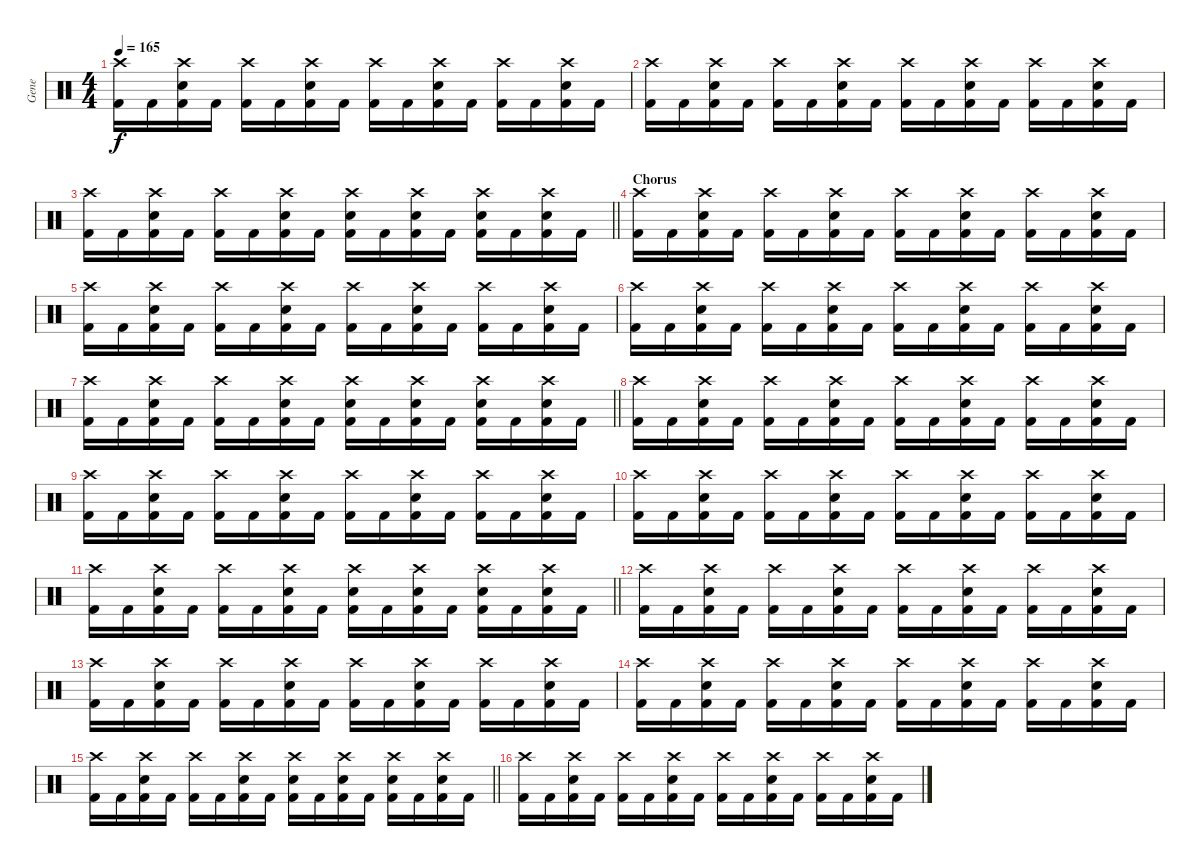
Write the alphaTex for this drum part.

\track ("Gene" "Gene") {instrument percussion}
\staff {score}
\articulation defaults
\ts (4 4)
\tempo 165
\clef neutral
\ks c
("Crash high (hit)" "Kick (hit) 2").16{dy f} "Kick (hit) 2".16 ("Crash high (hit)" "Electric Snare (hit)" "Kick (hit) 2").16 "Kick (hit) 2".16 ("Crash high (hit)" "Kick (hit) 2").16 "Kick (hit) 2".16 ("Crash high (hit)" "Electric Snare (hit)" "Kick (hit) 2").16 "Kick (hit) 2".16 ("Crash high (hit)" "Kick (hit) 2").16 "Kick (hit) 2".16 ("Crash high (hit)" "Electric Snare (hit)" "Kick (hit) 2").16 "Kick (hit) 2".16 ("Crash high (hit)" "Kick (hit) 2").16 "Kick (hit) 2".16 ("Crash high (hit)" "Electric Snare (hit)" "Kick (hit) 2").16 "Kick (hit) 2".16 |
("Crash high (hit)" "Kick (hit) 2").16 "Kick (hit) 2".16 ("Crash high (hit)" "Electric Snare (hit)" "Kick (hit) 2").16 "Kick (hit) 2".16 ("Crash high (hit)" "Kick (hit) 2").16 "Kick (hit) 2".16 ("Crash high (hit)" "Electric Snare (hit)" "Kick (hit) 2").16 "Kick (hit) 2".16 ("Crash high (hit)" "Kick (hit) 2").16 "Kick (hit) 2".16 ("Crash high (hit)" "Electric Snare (hit)" "Kick (hit) 2").16 "Kick (hit) 2".16 ("Crash high (hit)" "Kick (hit) 2").16 "Kick (hit) 2".16 ("Crash high (hit)" "Electric Snare (hit)" "Kick (hit) 2").16 "Kick (hit) 2".16 |
\barLineRight lightlight
("Crash high (hit)" "Kick (hit) 2").16 "Kick (hit) 2".16 ("Crash high (hit)" "Electric Snare (hit)" "Kick (hit) 2").16 "Kick (hit) 2".16 ("Crash high (hit)" "Kick (hit) 2").16 "Kick (hit) 2".16 ("Crash high (hit)" "Electric Snare (hit)" "Kick (hit) 2").16 "Kick (hit) 2".16 ("Crash high (hit)" "Electric Snare (hit)" "Kick (hit) 2").16 "Kick (hit) 2".16 ("Crash high (hit)" "Electric Snare (hit)" "Kick (hit) 2").16 "Kick (hit) 2".16 ("Crash high (hit)" "Electric Snare (hit)" "Kick (hit) 2").16 "Kick (hit) 2".16 ("Crash high (hit)" "Electric Snare (hit)" "Kick (hit) 2").16 "Kick (hit) 2".16 |
\section ("" "Chorus")
("Crash high (hit)" "Kick (hit) 2").16 "Kick (hit) 2".16 ("Crash high (hit)" "Electric Snare (hit)" "Kick (hit) 2").16 "Kick (hit) 2".16 ("Crash high (hit)" "Kick (hit) 2").16 "Kick (hit) 2".16 ("Crash high (hit)" "Electric Snare (hit)" "Kick (hit) 2").16 "Kick (hit) 2".16 ("Crash high (hit)" "Kick (hit) 2").16 "Kick (hit) 2".16 ("Crash high (hit)" "Electric Snare (hit)" "Kick (hit) 2").16 "Kick (hit) 2".16 ("Crash high (hit)" "Kick (hit) 2").16 "Kick (hit) 2".16 ("Crash high (hit)" "Electric Snare (hit)" "Kick (hit) 2").16 "Kick (hit) 2".16 |
("Crash high (hit)" "Kick (hit) 2").16 "Kick (hit) 2".16 ("Crash high (hit)" "Electric Snare (hit)" "Kick (hit) 2").16 "Kick (hit) 2".16 ("Crash high (hit)" "Kick (hit) 2").16 "Kick (hit) 2".16 ("Crash high (hit)" "Electric Snare (hit)" "Kick (hit) 2").16 "Kick (hit) 2".16 ("Crash high (hit)" "Kick (hit) 2").16 "Kick (hit) 2".16 ("Crash high (hit)" "Electric Snare (hit)" "Kick (hit) 2").16 "Kick (hit) 2".16 ("Crash high (hit)" "Kick (hit) 2").16 "Kick (hit) 2".16 ("Crash high (hit)" "Electric Snare (hit)" "Kick (hit) 2").16 "Kick (hit) 2".16 |
("Crash high (hit)" "Kick (hit) 2").16 "Kick (hit) 2".16 ("Crash high (hit)" "Electric Snare (hit)" "Kick (hit) 2").16 "Kick (hit) 2".16 ("Crash high (hit)" "Kick (hit) 2").16 "Kick (hit) 2".16 ("Crash high (hit)" "Electric Snare (hit)" "Kick (hit) 2").16 "Kick (hit) 2".16 ("Crash high (hit)" "Kick (hit) 2").16 "Kick (hit) 2".16 ("Crash high (hit)" "Electric Snare (hit)" "Kick (hit) 2").16 "Kick (hit) 2".16 ("Crash high (hit)" "Kick (hit) 2").16 "Kick (hit) 2".16 ("Crash high (hit)" "Electric Snare (hit)" "Kick (hit) 2").16 "Kick (hit) 2".16 |
\barLineRight lightlight
("Crash high (hit)" "Kick (hit) 2").16 "Kick (hit) 2".16 ("Crash high (hit)" "Electric Snare (hit)" "Kick (hit) 2").16 "Kick (hit) 2".16 ("Crash high (hit)" "Kick (hit) 2").16 "Kick (hit) 2".16 ("Crash high (hit)" "Electric Snare (hit)" "Kick (hit) 2").16 "Kick (hit) 2".16 ("Crash high (hit)" "Electric Snare (hit)" "Kick (hit) 2").16 "Kick (hit) 2".16 ("Crash high (hit)" "Electric Snare (hit)" "Kick (hit) 2").16 "Kick (hit) 2".16 ("Crash high (hit)" "Electric Snare (hit)" "Kick (hit) 2").16 "Kick (hit) 2".16 ("Crash high (hit)" "Electric Snare (hit)" "Kick (hit) 2").16 "Kick (hit) 2".16 |
("Crash high (hit)" "Kick (hit) 2").16 "Kick (hit) 2".16 ("Crash high (hit)" "Electric Snare (hit)" "Kick (hit) 2").16 "Kick (hit) 2".16 ("Crash high (hit)" "Kick (hit) 2").16 "Kick (hit) 2".16 ("Crash high (hit)" "Electric Snare (hit)" "Kick (hit) 2").16 "Kick (hit) 2".16 ("Crash high (hit)" "Kick (hit) 2").16 "Kick (hit) 2".16 ("Crash high (hit)" "Electric Snare (hit)" "Kick (hit) 2").16 "Kick (hit) 2".16 ("Crash high (hit)" "Kick (hit) 2").16 "Kick (hit) 2".16 ("Crash high (hit)" "Electric Snare (hit)" "Kick (hit) 2").16 "Kick (hit) 2".16 |
("Crash high (hit)" "Kick (hit) 2").16 "Kick (hit) 2".16 ("Crash high (hit)" "Electric Snare (hit)" "Kick (hit) 2").16 "Kick (hit) 2".16 ("Crash high (hit)" "Kick (hit) 2").16 "Kick (hit) 2".16 ("Crash high (hit)" "Electric Snare (hit)" "Kick (hit) 2").16 "Kick (hit) 2".16 ("Crash high (hit)" "Kick (hit) 2").16 "Kick (hit) 2".16 ("Crash high (hit)" "Electric Snare (hit)" "Kick (hit) 2").16 "Kick (hit) 2".16 ("Crash high (hit)" "Kick (hit) 2").16 "Kick (hit) 2".16 ("Crash high (hit)" "Electric Snare (hit)" "Kick (hit) 2").16 "Kick (hit) 2".16 |
("Crash high (hit)" "Kick (hit) 2").16 "Kick (hit) 2".16 ("Crash high (hit)" "Electric Snare (hit)" "Kick (hit) 2").16 "Kick (hit) 2".16 ("Crash high (hit)" "Kick (hit) 2").16 "Kick (hit) 2".16 ("Crash high (hit)" "Electric Snare (hit)" "Kick (hit) 2").16 "Kick (hit) 2".16 ("Crash high (hit)" "Kick (hit) 2").16 "Kick (hit) 2".16 ("Crash high (hit)" "Electric Snare (hit)" "Kick (hit) 2").16 "Kick (hit) 2".16 ("Crash high (hit)" "Kick (hit) 2").16 "Kick (hit) 2".16 ("Crash high (hit)" "Electric Snare (hit)" "Kick (hit) 2").16 "Kick (hit) 2".16 |
\barLineRight lightlight
("Crash high (hit)" "Kick (hit) 2").16 "Kick (hit) 2".16 ("Crash high (hit)" "Electric Snare (hit)" "Kick (hit) 2").16 "Kick (hit) 2".16 ("Crash high (hit)" "Kick (hit) 2").16 "Kick (hit) 2".16 ("Crash high (hit)" "Electric Snare (hit)" "Kick (hit) 2").16 "Kick (hit) 2".16 ("Crash high (hit)" "Electric Snare (hit)" "Kick (hit) 2").16 "Kick (hit) 2".16 ("Crash high (hit)" "Electric Snare (hit)" "Kick (hit) 2").16 "Kick (hit) 2".16 ("Crash high (hit)" "Electric Snare (hit)" "Kick (hit) 2").16 "Kick (hit) 2".16 ("Crash high (hit)" "Electric Snare (hit)" "Kick (hit) 2").16 "Kick (hit) 2".16 |
("Crash high (hit)" "Kick (hit) 2").16 "Kick (hit) 2".16 ("Crash high (hit)" "Electric Snare (hit)" "Kick (hit) 2").16 "Kick (hit) 2".16 ("Crash high (hit)" "Kick (hit) 2").16 "Kick (hit) 2".16 ("Crash high (hit)" "Electric Snare (hit)" "Kick (hit) 2").16 "Kick (hit) 2".16 ("Crash high (hit)" "Kick (hit) 2").16 "Kick (hit) 2".16 ("Crash high (hit)" "Electric Snare (hit)" "Kick (hit) 2").16 "Kick (hit) 2".16 ("Crash high (hit)" "Kick (hit) 2").16 "Kick (hit) 2".16 ("Crash high (hit)" "Electric Snare (hit)" "Kick (hit) 2").16 "Kick (hit) 2".16 |
("Crash high (hit)" "Kick (hit) 2").16 "Kick (hit) 2".16 ("Crash high (hit)" "Electric Snare (hit)" "Kick (hit) 2").16 "Kick (hit) 2".16 ("Crash high (hit)" "Kick (hit) 2").16 "Kick (hit) 2".16 ("Crash high (hit)" "Electric Snare (hit)" "Kick (hit) 2").16 "Kick (hit) 2".16 ("Crash high (hit)" "Kick (hit) 2").16 "Kick (hit) 2".16 ("Crash high (hit)" "Electric Snare (hit)" "Kick (hit) 2").16 "Kick (hit) 2".16 ("Crash high (hit)" "Kick (hit) 2").16 "Kick (hit) 2".16 ("Crash high (hit)" "Electric Snare (hit)" "Kick (hit) 2").16 "Kick (hit) 2".16 |
("Crash high (hit)" "Kick (hit) 2").16 "Kick (hit) 2".16 ("Crash high (hit)" "Electric Snare (hit)" "Kick (hit) 2").16 "Kick (hit) 2".16 ("Crash high (hit)" "Kick (hit) 2").16 "Kick (hit) 2".16 ("Crash high (hit)" "Electric Snare (hit)" "Kick (hit) 2").16 "Kick (hit) 2".16 ("Crash high (hit)" "Kick (hit) 2").16 "Kick (hit) 2".16 ("Crash high (hit)" "Electric Snare (hit)" "Kick (hit) 2").16 "Kick (hit) 2".16 ("Crash high (hit)" "Kick (hit) 2").16 "Kick (hit) 2".16 ("Crash high (hit)" "Electric Snare (hit)" "Kick (hit) 2").16 "Kick (hit) 2".16 |
\barLineRight lightlight
("Crash high (hit)" "Kick (hit) 2").16 "Kick (hit) 2".16 ("Crash high (hit)" "Electric Snare (hit)" "Kick (hit) 2").16 "Kick (hit) 2".16 ("Crash high (hit)" "Kick (hit) 2").16 "Kick (hit) 2".16 ("Crash high (hit)" "Electric Snare (hit)" "Kick (hit) 2").16 "Kick (hit) 2".16 ("Crash high (hit)" "Electric Snare (hit)" "Kick (hit) 2").16 "Kick (hit) 2".16 ("Crash high (hit)" "Electric Snare (hit)" "Kick (hit) 2").16 "Kick (hit) 2".16 ("Crash high (hit)" "Electric Snare (hit)" "Kick (hit) 2").16 "Kick (hit) 2".16 ("Crash high (hit)" "Electric Snare (hit)" "Kick (hit) 2").16 "Kick (hit) 2".16 |
("Crash high (hit)" "Kick (hit) 2").16 "Kick (hit) 2".16 ("Crash high (hit)" "Electric Snare (hit)" "Kick (hit) 2").16 "Kick (hit) 2".16 ("Crash high (hit)" "Kick (hit) 2").16 "Kick (hit) 2".16 ("Crash high (hit)" "Electric Snare (hit)" "Kick (hit) 2").16 "Kick (hit) 2".16 ("Crash high (hit)" "Kick (hit) 2").16 "Kick (hit) 2".16 ("Crash high (hit)" "Electric Snare (hit)" "Kick (hit) 2").16 "Kick (hit) 2".16 ("Crash high (hit)" "Kick (hit) 2").16 "Kick (hit) 2".16 ("Crash high (hit)" "Electric Snare (hit)" "Kick (hit) 2").16 "Kick (hit) 2".16
